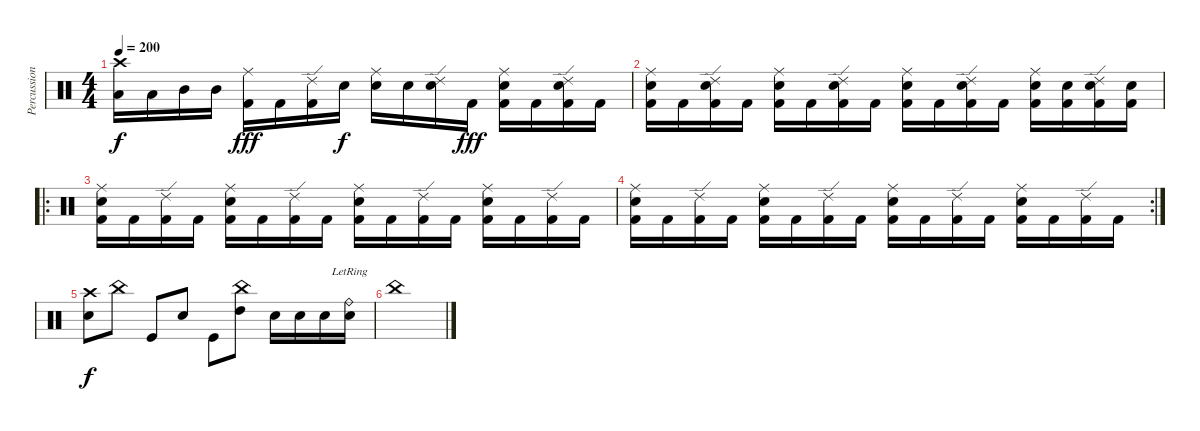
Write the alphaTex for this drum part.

\track ("Percussion" "Percussion") {instrument percussion}
\staff {score}
\articulation defaults
\ts (4 4)
\tempo 200
\clef neutral
\ks c
("Crash high (hit)" "Low Tom (hit)").16{dy f} "Low Tom (hit)".16 "Mid Tom (hit)".16 "Mid Tom (hit)".16 ("Ride (middle)" "Kick (hit) 2").16{dy fff} "Kick (hit) 2".16 ("Ride (edge) 2" "Kick (hit) 2").16 "Electric Snare (hit)".16{dy f} ("Ride (middle)" "Electric Snare (hit)").16 "Electric Snare (hit)".16 ("Ride (edge) 2" "Electric Snare (hit)").16 "Kick (hit) 2".16{dy fff} ("Ride (middle)" "Electric Snare (hit)" "Kick (hit) 2").16 "Kick (hit) 2".16 ("Ride (edge) 2" "Electric Snare (hit)" "Kick (hit) 2").16 "Kick (hit) 2".16 |
("Ride (middle)" "Electric Snare (hit)" "Kick (hit) 2").16 "Kick (hit) 2".16 ("Ride (edge) 2" "Electric Snare (hit)" "Kick (hit) 2").16 "Kick (hit) 2".16 ("Ride (middle)" "Electric Snare (hit)" "Kick (hit) 2").16 "Kick (hit) 2".16 ("Ride (edge) 2" "Electric Snare (hit)" "Kick (hit) 2").16 "Kick (hit) 2".16 ("Ride (middle)" "Electric Snare (hit)" "Kick (hit) 2").16 "Kick (hit) 2".16 ("Ride (edge) 2" "Electric Snare (hit)" "Kick (hit) 2").16 "Kick (hit) 2".16 ("Ride (middle)" "Electric Snare (hit)" "Kick (hit) 2").16 ("Electric Snare (hit)" "Kick (hit) 2").16 ("Ride (edge) 2" "Electric Snare (hit)" "Kick (hit) 2").16 ("Electric Snare (hit)" "Kick (hit) 2").16 |
\ro
("Ride (middle)" "Electric Snare (hit)" "Kick (hit) 2").16 "Kick (hit) 2".16 ("Ride (edge) 2" "Kick (hit) 2").16 "Kick (hit) 2".16 ("Ride (middle)" "Electric Snare (hit)" "Kick (hit) 2").16 "Kick (hit) 2".16 ("Ride (edge) 2" "Kick (hit) 2").16 "Kick (hit) 2".16 ("Ride (middle)" "Electric Snare (hit)" "Kick (hit) 2").16 "Kick (hit) 2".16 ("Ride (edge) 2" "Kick (hit) 2").16 "Kick (hit) 2".16 ("Ride (middle)" "Electric Snare (hit)" "Kick (hit) 2").16 "Kick (hit) 2".16 ("Ride (edge) 2" "Kick (hit) 2").16 "Kick (hit) 2".16 |
\rc 2
("Ride (middle)" "Electric Snare (hit)" "Kick (hit) 2").16 "Kick (hit) 2".16 ("Ride (edge) 2" "Kick (hit) 2").16 "Kick (hit) 2".16 ("Ride (middle)" "Electric Snare (hit)" "Kick (hit) 2").16 "Kick (hit) 2".16 ("Ride (edge) 2" "Kick (hit) 2").16 "Kick (hit) 2".16 ("Ride (middle)" "Electric Snare (hit)" "Kick (hit) 2").16 "Kick (hit) 2".16 ("Ride (edge) 2" "Kick (hit) 2").16 "Kick (hit) 2".16 ("Ride (middle)" "Electric Snare (hit)" "Kick (hit) 2").16 "Kick (hit) 2".16 ("Ride (edge) 2" "Kick (hit) 2").16 "Kick (hit) 2".16 |
("Crash high (hit)" "Electric Snare (hit)").8{dy f} "China (hit)".8 "Kick (hit)".8 "Electric Snare (hit)".8 "Kick (hit)".8 ("China (hit)" "High Tom (hit)").8 "Electric Snare (hit)".16 "Electric Snare (hit)".16 "Electric Snare (hit)".16 ("Ride (bell)"{lr} "Electric Snare (hit)").16 |
"China (hit)".1
